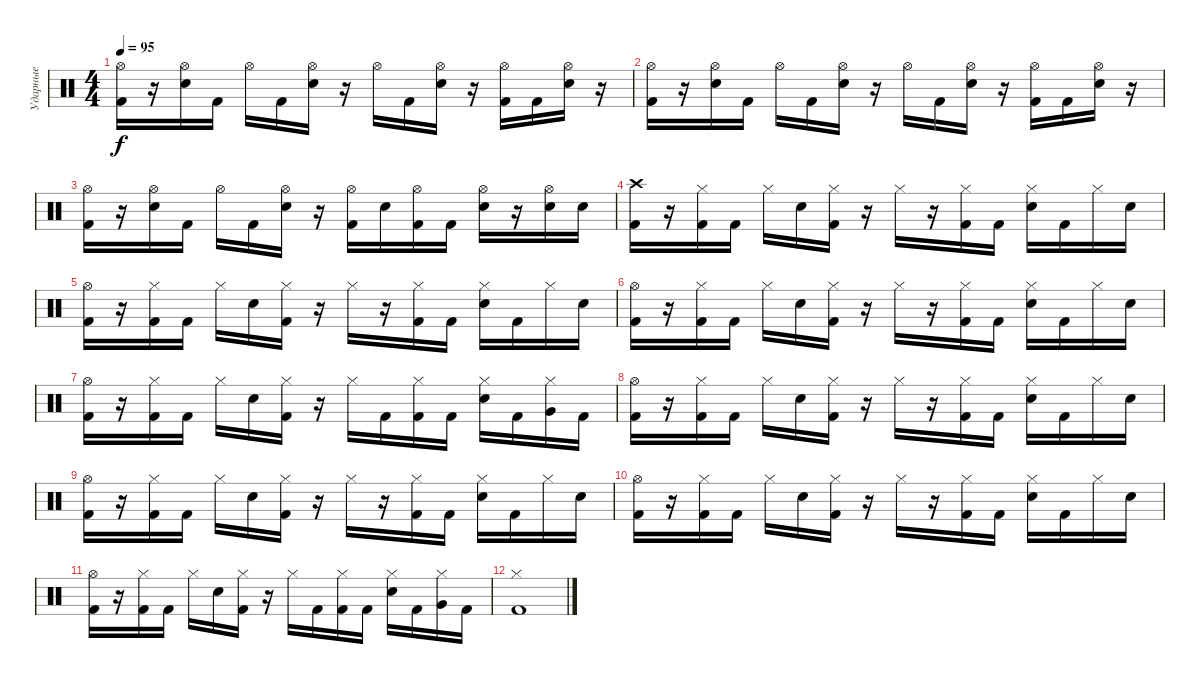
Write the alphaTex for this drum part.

\track ("Ударные" "Ударные") {instrument percussion}
\staff {score}
\articulation defaults
\ts (4 4)
\tempo 95
\clef neutral
\ks c
("Hi-Hat (open)" "Kick (hit) 2").16{dy f} r.16 ("Hi-Hat (open)" "Electric Snare (hit)").16 "Kick (hit) 2".16 "Hi-Hat (open)".16 "Kick (hit) 2".16 ("Hi-Hat (open)" "Electric Snare (hit)").16 r.16 "Hi-Hat (open)".16 "Kick (hit) 2".16 ("Hi-Hat (open)" "Electric Snare (hit)").16 r.16 ("Hi-Hat (open)" "Kick (hit) 2").16 "Kick (hit) 2".16 ("Hi-Hat (open)" "Electric Snare (hit)").16 r.16 |
("Hi-Hat (open)" "Kick (hit) 2").16 r.16 ("Hi-Hat (open)" "Electric Snare (hit)").16 "Kick (hit) 2".16 "Hi-Hat (open)".16 "Kick (hit) 2".16 ("Hi-Hat (open)" "Electric Snare (hit)").16 r.16 "Hi-Hat (open)".16 "Kick (hit) 2".16 ("Hi-Hat (open)" "Electric Snare (hit)").16 r.16 ("Hi-Hat (open)" "Kick (hit) 2").16 "Kick (hit) 2".16 ("Hi-Hat (open)" "Electric Snare (hit)").16 r.16 |
("Hi-Hat (open)" "Kick (hit) 2").16 r.16 ("Hi-Hat (open)" "Electric Snare (hit)").16 "Kick (hit) 2".16 "Hi-Hat (open)".16 "Kick (hit) 2".16 ("Hi-Hat (open)" "Electric Snare (hit)").16 r.16 ("Hi-Hat (open)" "Kick (hit) 2").16 "Electric Snare (hit)".16 ("Hi-Hat (open)" "Kick (hit) 2").16 "Kick (hit) 2".16 ("Hi-Hat (open)" "Electric Snare (hit)").16 r.16 ("Hi-Hat (open)" "Electric Snare (hit)").16 "Electric Snare (hit)".16 |
("Crash high (hit)" "Kick (hit) 2").16 r.16 ("Hi-Hat (closed)" "Kick (hit) 2").16 "Kick (hit) 2".16 "Hi-Hat (closed)".16 "Electric Snare (hit)".16 ("Hi-Hat (closed)" "Kick (hit) 2").16 r.16 "Hi-Hat (closed)".16 r.16 ("Hi-Hat (closed)" "Kick (hit) 2").16 "Kick (hit) 2".16 ("Hi-Hat (closed)" "Electric Snare (hit)").16 "Kick (hit) 2".16 "Hi-Hat (closed)".16 "Electric Snare (hit)".16 |
("Hi-Hat (open)" "Kick (hit) 2").16 r.16 ("Hi-Hat (closed)" "Kick (hit) 2").16 "Kick (hit) 2".16 "Hi-Hat (closed)".16 "Electric Snare (hit)".16 ("Hi-Hat (closed)" "Kick (hit) 2").16 r.16 "Hi-Hat (closed)".16 r.16 ("Hi-Hat (closed)" "Kick (hit) 2").16 "Kick (hit) 2".16 ("Hi-Hat (closed)" "Electric Snare (hit)").16 "Kick (hit) 2".16 "Hi-Hat (closed)".16 "Electric Snare (hit)".16 |
("Hi-Hat (open)" "Kick (hit) 2").16 r.16 ("Hi-Hat (closed)" "Kick (hit) 2").16 "Kick (hit) 2".16 "Hi-Hat (closed)".16 "Electric Snare (hit)".16 ("Hi-Hat (closed)" "Kick (hit) 2").16 r.16 "Hi-Hat (closed)".16 r.16 ("Hi-Hat (closed)" "Kick (hit) 2").16 "Kick (hit) 2".16 ("Hi-Hat (closed)" "Electric Snare (hit)").16 "Kick (hit) 2".16 "Hi-Hat (closed)".16 "Electric Snare (hit)".16 |
("Hi-Hat (open)" "Kick (hit) 2").16 r.16 ("Hi-Hat (closed)" "Kick (hit) 2").16 "Kick (hit) 2".16 "Hi-Hat (closed)".16 "Electric Snare (hit)".16 ("Hi-Hat (closed)" "Kick (hit) 2").16 r.16 "Hi-Hat (closed)".16 "Kick (hit) 2".16 ("Hi-Hat (closed)" "Kick (hit) 2").16 "Kick (hit) 2".16 ("Hi-Hat (closed)" "Electric Snare (hit)").16 "Kick (hit) 2".16 ("Hi-Hat (closed)" "Very Low Tom (hit)").16 "Kick (hit) 2".16 |
("Hi-Hat (open)" "Kick (hit) 2").16 r.16 ("Hi-Hat (closed)" "Kick (hit) 2").16 "Kick (hit) 2".16 "Hi-Hat (closed)".16 "Electric Snare (hit)".16 ("Hi-Hat (closed)" "Kick (hit) 2").16 r.16 "Hi-Hat (closed)".16 r.16 ("Hi-Hat (closed)" "Kick (hit) 2").16 "Kick (hit) 2".16 ("Hi-Hat (closed)" "Electric Snare (hit)").16 "Kick (hit) 2".16 "Hi-Hat (closed)".16 "Electric Snare (hit)".16 |
("Hi-Hat (open)" "Kick (hit) 2").16 r.16 ("Hi-Hat (closed)" "Kick (hit) 2").16 "Kick (hit) 2".16 "Hi-Hat (closed)".16 "Electric Snare (hit)".16 ("Hi-Hat (closed)" "Kick (hit) 2").16 r.16 "Hi-Hat (closed)".16 r.16 ("Hi-Hat (closed)" "Kick (hit) 2").16 "Kick (hit) 2".16 ("Hi-Hat (closed)" "Electric Snare (hit)").16 "Kick (hit) 2".16 "Hi-Hat (closed)".16 "Electric Snare (hit)".16 |
("Hi-Hat (open)" "Kick (hit) 2").16 r.16 ("Hi-Hat (closed)" "Kick (hit) 2").16 "Kick (hit) 2".16 "Hi-Hat (closed)".16 "Electric Snare (hit)".16 ("Hi-Hat (closed)" "Kick (hit) 2").16 r.16 "Hi-Hat (closed)".16 r.16 ("Hi-Hat (closed)" "Kick (hit) 2").16 "Kick (hit) 2".16 ("Hi-Hat (closed)" "Electric Snare (hit)").16 "Kick (hit) 2".16 "Hi-Hat (closed)".16 "Electric Snare (hit)".16 |
("Hi-Hat (open)" "Kick (hit) 2").16 r.16 ("Hi-Hat (closed)" "Kick (hit) 2").16 "Kick (hit) 2".16 "Hi-Hat (closed)".16 "Electric Snare (hit)".16 ("Hi-Hat (closed)" "Kick (hit) 2").16 r.16 "Hi-Hat (closed)".16 "Kick (hit) 2".16 ("Hi-Hat (closed)" "Kick (hit) 2").16 "Kick (hit) 2".16 ("Hi-Hat (closed)" "Electric Snare (hit)").16 "Kick (hit) 2".16 ("Hi-Hat (closed)" "Very Low Tom (hit)").16 "Kick (hit) 2".16 |
("Hi-Hat (closed)" "Kick (hit) 2").1
